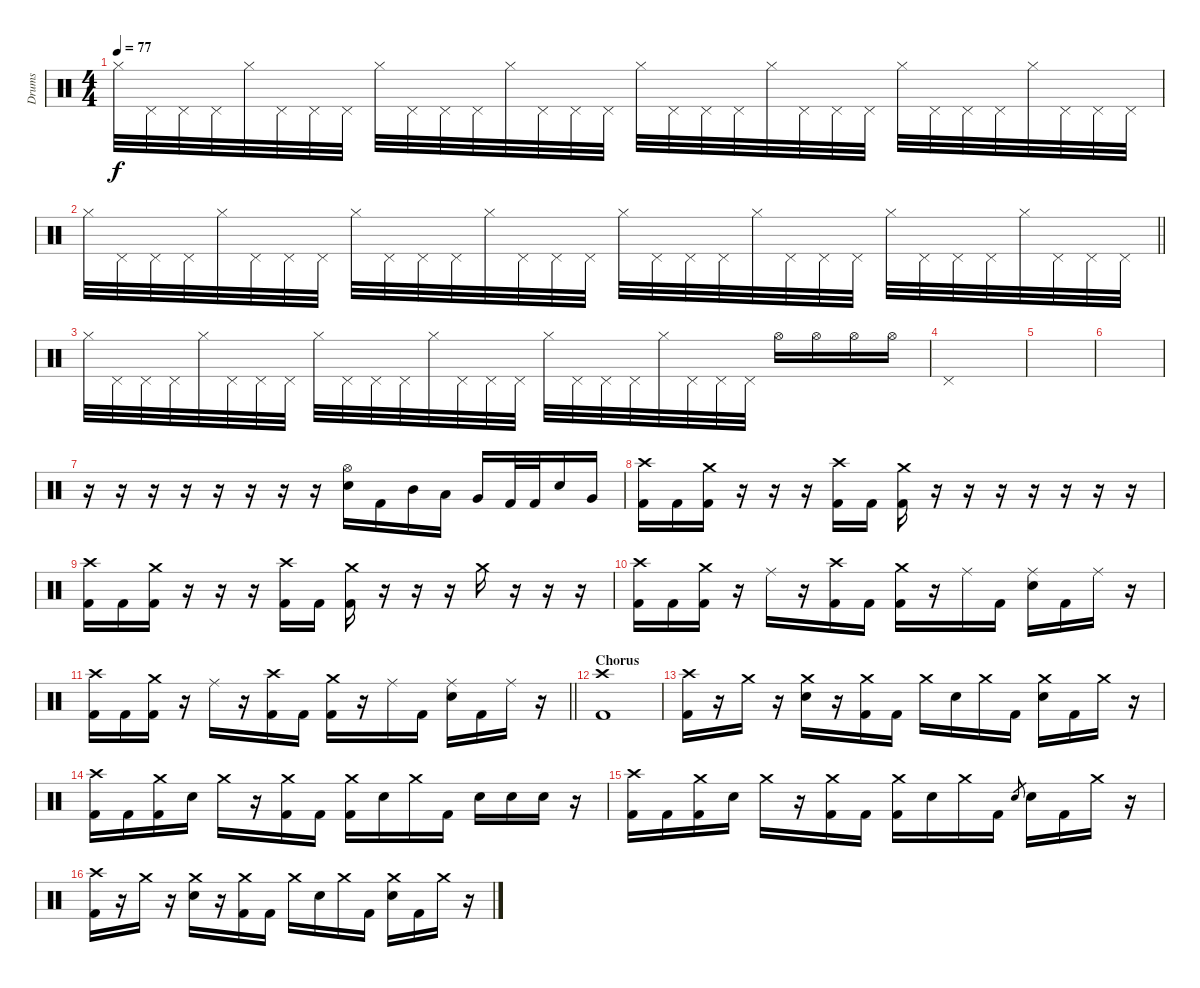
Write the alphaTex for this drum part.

\track ("Drums" "Drums") {instrument percussion}
\staff {score}
\articulation defaults
\ts (4 4)
\tempo 77
\clef neutral
\ks c "Hi-Hat (closed)".32{dy f} "Pedal Hi-Hat (hit)".32 "Pedal Hi-Hat (hit)".32 "Pedal Hi-Hat (hit)".32 "Hi-Hat (closed)".32 "Pedal Hi-Hat (hit)".32 "Pedal Hi-Hat (hit)".32 "Pedal Hi-Hat (hit)".32 "Hi-Hat (closed)".32 "Pedal Hi-Hat (hit)".32 "Pedal Hi-Hat (hit)".32 "Pedal Hi-Hat (hit)".32 "Hi-Hat (closed)".32 "Pedal Hi-Hat (hit)".32 "Pedal Hi-Hat (hit)".32 "Pedal Hi-Hat (hit)".32 "Hi-Hat (closed)".32 "Pedal Hi-Hat (hit)".32 "Pedal Hi-Hat (hit)".32 "Pedal Hi-Hat (hit)".32 "Hi-Hat (closed)".32 "Pedal Hi-Hat (hit)".32 "Pedal Hi-Hat (hit)".32 "Pedal Hi-Hat (hit)".32 "Hi-Hat (closed)".32 "Pedal Hi-Hat (hit)".32 "Pedal Hi-Hat (hit)".32 "Pedal Hi-Hat (hit)".32 "Hi-Hat (closed)".32 "Pedal Hi-Hat (hit)".32 "Pedal Hi-Hat (hit)".32 "Pedal Hi-Hat (hit)".32
|
\barLineRight lightlight "Hi-Hat (closed)".32 "Pedal Hi-Hat (hit)".32 "Pedal Hi-Hat (hit)".32 "Pedal Hi-Hat (hit)".32 "Hi-Hat (closed)".32 "Pedal Hi-Hat (hit)".32 "Pedal Hi-Hat (hit)".32 "Pedal Hi-Hat (hit)".32 "Hi-Hat (closed)".32 "Pedal Hi-Hat (hit)".32 "Pedal Hi-Hat (hit)".32 "Pedal Hi-Hat (hit)".32 "Hi-Hat (closed)".32 "Pedal Hi-Hat (hit)".32 "Pedal Hi-Hat (hit)".32 "Pedal Hi-Hat (hit)".32 "Hi-Hat (closed)".32 "Pedal Hi-Hat (hit)".32 "Pedal Hi-Hat (hit)".32 "Pedal Hi-Hat (hit)".32 "Hi-Hat (closed)".32 "Pedal Hi-Hat (hit)".32 "Pedal Hi-Hat (hit)".32 "Pedal Hi-Hat (hit)".32 "Hi-Hat (closed)".32 "Pedal Hi-Hat (hit)".32 "Pedal Hi-Hat (hit)".32 "Pedal Hi-Hat (hit)".32 "Hi-Hat (closed)".32 "Pedal Hi-Hat (hit)".32 "Pedal Hi-Hat (hit)".32 "Pedal Hi-Hat (hit)".32
|
"Hi-Hat (closed)".32 "Pedal Hi-Hat (hit)".32 "Pedal Hi-Hat (hit)".32 "Pedal Hi-Hat (hit)".32 "Hi-Hat (closed)".32 "Pedal Hi-Hat (hit)".32 "Pedal Hi-Hat (hit)".32 "Pedal Hi-Hat (hit)".32 "Hi-Hat (closed)".32 "Pedal Hi-Hat (hit)".32 "Pedal Hi-Hat (hit)".32 "Pedal Hi-Hat (hit)".32 "Hi-Hat (closed)".32 "Pedal Hi-Hat (hit)".32 "Pedal Hi-Hat (hit)".32 "Pedal Hi-Hat (hit)".32 "Hi-Hat (closed)".32 "Pedal Hi-Hat (hit)".32 "Pedal Hi-Hat (hit)".32 "Pedal Hi-Hat (hit)".32 "Hi-Hat (closed)".32 "Pedal Hi-Hat (hit)".32 "Pedal Hi-Hat (hit)".32 "Pedal Hi-Hat (hit)".32 "Hi-Hat (open)".16 "Hi-Hat (open)".16 "Hi-Hat (open)".16 "Hi-Hat (open)".16 |
"Pedal Hi-Hat (hit)".1 |
|
|
r.16 r.16 r.16 r.16 r.16 r.16 r.16 r.16 ("Hi-Hat (open)" "Snare (hit) 2").16 "Kick (hit) 2".16 "Mid Tom (hit)".16 "Low Tom (hit)".16 "Very Low Tom (hit)".16 "Kick (hit) 2".32 "Kick (hit) 2".32 "Snare (hit) 2".16 "Very Low Tom (hit)".16 |
("Crash high (hit)" "Kick (hit) 2").16 "Kick (hit) 2".16 ("Crash medium (hit)" "Kick (hit) 2").16 r.16 r.16 r.16 ("Crash high (hit)" "Kick (hit) 2").16 "Kick (hit) 2".16 ("Crash medium (hit)" "Kick (hit) 2").16 r.16 r.16 r.16 r.16 r.16 r.16 r.16 |
("Crash high (hit)" "Kick (hit) 2").16 "Kick (hit) 2".16 ("Crash medium (hit)" "Kick (hit) 2").16 r.16 r.16 r.16 ("Crash high (hit)" "Kick (hit) 2").16 "Kick (hit) 2".16 ("Crash medium (hit)" "Kick (hit) 2").16 r.16 r.16 r.16 "Crash medium (hit)".16 r.16 r.16 r.16 |
("Crash high (hit)" "Kick (hit) 2").16 "Kick (hit) 2".16 ("Crash medium (hit)" "Kick (hit) 2").16 r.16 "Ride (middle)".16 r.16 ("Crash high (hit)" "Kick (hit) 2").16 "Kick (hit) 2".16 ("Crash medium (hit)" "Kick (hit) 2").16 r.16 "Ride (middle)".16 "Kick (hit) 2".16 ("Ride (middle)" "Snare (hit) 2").16 "Kick (hit) 2".16 "Ride (middle)".16 r.16 |
\barLineRight lightlight
("Crash high (hit)" "Kick (hit) 2").16 "Kick (hit) 2".16 ("Crash medium (hit)" "Kick (hit) 2").16 r.16 "Ride (middle)".16 r.16 ("Crash high (hit)" "Kick (hit) 2").16 "Kick (hit) 2".16 ("Crash medium (hit)" "Kick (hit) 2").16 r.16 "Ride (middle)".16 "Kick (hit) 2".16 ("Ride (middle)" "Snare (hit) 2").16 "Kick (hit) 2".16 "Ride (middle)".16 r.16 |
\section ("" "Chorus")
("Crash high (hit)" "Kick (hit) 2").1 |
("Crash high (hit)" "Kick (hit) 2").16 r.16 "Crash medium (hit)".16 r.16 ("Crash medium (hit)" "Snare (hit) 2").16 r.16 ("Crash medium (hit)" "Kick (hit) 2").16 "Kick (hit) 2".16 "Crash medium (hit)".16 "Snare (hit) 2".16 "Crash medium (hit)".16 "Kick (hit) 2".16 ("Crash medium (hit)" "Snare (hit) 2").16 "Kick (hit) 2".16 "Crash medium (hit)".16 r.16 |
("Crash high (hit)" "Kick (hit) 2").16 "Kick (hit) 2".16 ("Crash medium (hit)" "Kick (hit) 2").16 "Snare (hit) 2".16 "Crash medium (hit)".16 r.16 ("Crash medium (hit)" "Kick (hit) 2").16 "Kick (hit) 2".16 ("Crash medium (hit)" "Kick (hit) 2").16 "Snare (hit) 2".16 "Crash medium (hit)".16 "Kick (hit) 2".16 "Snare (hit) 2".16 "Snare (hit) 2".16 "Snare (hit) 2".16 r.16 |
("Crash high (hit)" "Kick (hit) 2").16 "Kick (hit) 2".16 ("Crash medium (hit)" "Kick (hit) 2").16 "Snare (hit) 2".16 "Crash medium (hit)".16 r.16 ("Crash medium (hit)" "Kick (hit) 2").16 "Kick (hit) 2".16 ("Crash medium (hit)" "Kick (hit) 2").16 "Snare (hit) 2".16 "Crash medium (hit)".16 "Kick (hit) 2".16 "Snare (hit) 2".8{gr} "Snare (hit) 2".16 "Kick (hit) 2".16 "Crash medium (hit)".16 r.16 |
("Crash high (hit)" "Kick (hit) 2").16 r.16 "Crash medium (hit)".16 r.16 ("Crash medium (hit)" "Snare (hit) 2").16 r.16 ("Crash medium (hit)" "Kick (hit) 2").16 "Kick (hit) 2".16 "Crash medium (hit)".16 "Snare (hit) 2".16 "Crash medium (hit)".16 "Kick (hit) 2".16 ("Crash medium (hit)" "Snare (hit) 2").16 "Kick (hit) 2".16 "Crash medium (hit)".16 r.16
